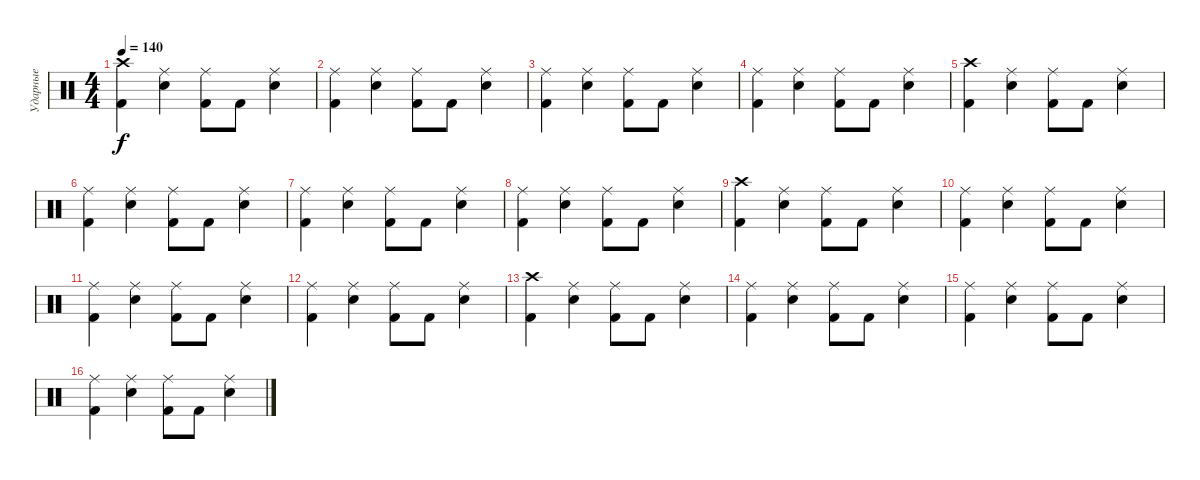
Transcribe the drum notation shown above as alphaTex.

\track ("Ударные" "Ударные") {instrument percussion}
\staff {score}
\articulation defaults
\ts (4 4)
\tempo 140
\clef neutral
\ks c
("Crash high (hit)" "Kick (hit) 2").4{dy f} ("Ride (middle)" "Electric Snare (hit)").4 ("Ride (middle)" "Kick (hit) 2").8 "Kick (hit) 2".8 ("Ride (middle)" "Electric Snare (hit)").4 |
("Ride (middle)" "Kick (hit) 2").4 ("Ride (middle)" "Electric Snare (hit)").4 ("Ride (middle)" "Kick (hit) 2").8 "Kick (hit) 2".8 ("Ride (middle)" "Electric Snare (hit)").4 |
("Ride (middle)" "Kick (hit) 2").4 ("Ride (middle)" "Electric Snare (hit)").4 ("Ride (middle)" "Kick (hit) 2").8 "Kick (hit) 2".8 ("Ride (middle)" "Electric Snare (hit)").4 |
("Ride (middle)" "Kick (hit) 2").4 ("Ride (middle)" "Electric Snare (hit)").4 ("Ride (middle)" "Kick (hit) 2").8 "Kick (hit) 2".8 ("Ride (middle)" "Electric Snare (hit)").4 |
("Crash high (hit)" "Kick (hit) 2").4 ("Ride (middle)" "Electric Snare (hit)").4 ("Ride (middle)" "Kick (hit) 2").8 "Kick (hit) 2".8 ("Ride (middle)" "Electric Snare (hit)").4 |
("Ride (middle)" "Kick (hit) 2").4 ("Ride (middle)" "Electric Snare (hit)").4 ("Ride (middle)" "Kick (hit) 2").8 "Kick (hit) 2".8 ("Ride (middle)" "Electric Snare (hit)").4 |
("Ride (middle)" "Kick (hit) 2").4 ("Ride (middle)" "Electric Snare (hit)").4 ("Ride (middle)" "Kick (hit) 2").8 "Kick (hit) 2".8 ("Ride (middle)" "Electric Snare (hit)").4 |
("Ride (middle)" "Kick (hit) 2").4 ("Ride (middle)" "Electric Snare (hit)").4 ("Ride (middle)" "Kick (hit) 2").8 "Kick (hit) 2".8 ("Ride (middle)" "Electric Snare (hit)").4 |
("Crash high (hit)" "Kick (hit) 2").4 ("Ride (middle)" "Electric Snare (hit)").4 ("Ride (middle)" "Kick (hit) 2").8 "Kick (hit) 2".8 ("Ride (middle)" "Electric Snare (hit)").4 |
("Ride (middle)" "Kick (hit) 2").4 ("Ride (middle)" "Electric Snare (hit)").4 ("Ride (middle)" "Kick (hit) 2").8 "Kick (hit) 2".8 ("Ride (middle)" "Electric Snare (hit)").4 |
("Ride (middle)" "Kick (hit) 2").4 ("Ride (middle)" "Electric Snare (hit)").4 ("Ride (middle)" "Kick (hit) 2").8 "Kick (hit) 2".8 ("Ride (middle)" "Electric Snare (hit)").4 |
("Ride (middle)" "Kick (hit) 2").4 ("Ride (middle)" "Electric Snare (hit)").4 ("Ride (middle)" "Kick (hit) 2").8 "Kick (hit) 2".8 ("Ride (middle)" "Electric Snare (hit)").4 |
("Crash high (hit)" "Kick (hit) 2").4 ("Ride (middle)" "Electric Snare (hit)").4 ("Ride (middle)" "Kick (hit) 2").8 "Kick (hit) 2".8 ("Ride (middle)" "Electric Snare (hit)").4 |
("Ride (middle)" "Kick (hit) 2").4 ("Ride (middle)" "Electric Snare (hit)").4 ("Ride (middle)" "Kick (hit) 2").8 "Kick (hit) 2".8 ("Ride (middle)" "Electric Snare (hit)").4 |
("Ride (middle)" "Kick (hit) 2").4 ("Ride (middle)" "Electric Snare (hit)").4 ("Ride (middle)" "Kick (hit) 2").8 "Kick (hit) 2".8 ("Ride (middle)" "Electric Snare (hit)").4 |
("Ride (middle)" "Kick (hit) 2").4 ("Ride (middle)" "Electric Snare (hit)").4 ("Ride (middle)" "Kick (hit) 2").8 "Kick (hit) 2".8 ("Ride (middle)" "Electric Snare (hit)").4
